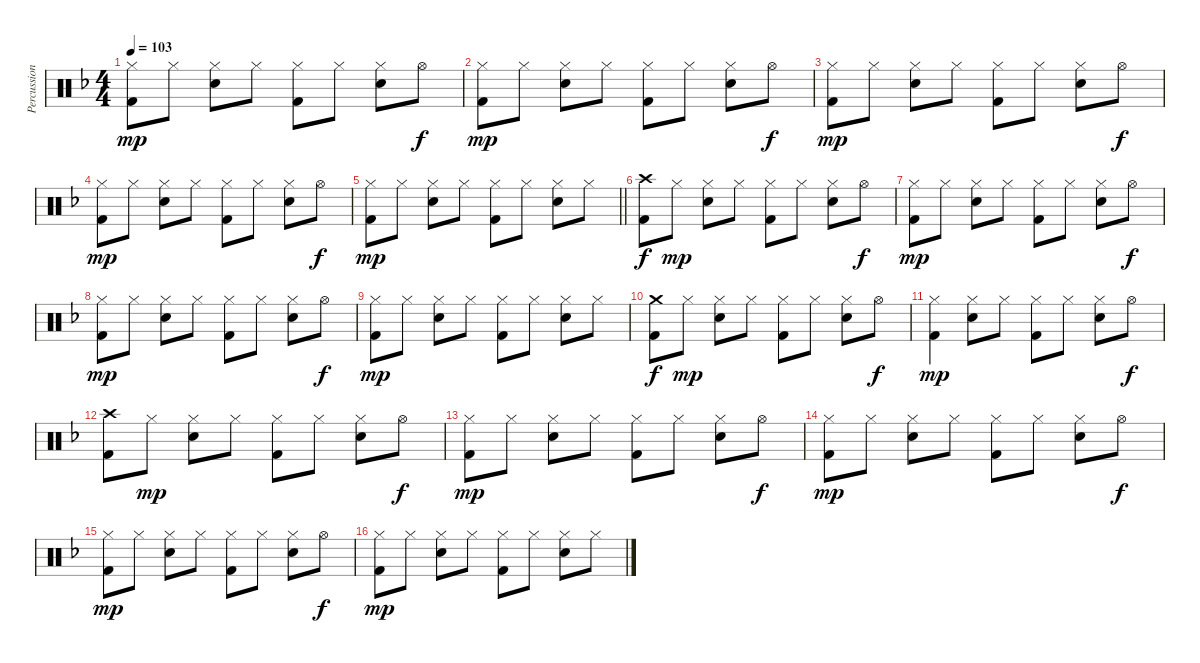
\track ("Percussions" "Percussion") {instrument percussion}
\staff {score}
\articulation defaults
\ts (4 4)
\tempo 103
\clef neutral
\ks dminor
("Hi-Hat (closed)" "Kick (hit) 2").8{dy mp} "Hi-Hat (closed)".8 ("Hi-Hat (closed)" "Snare (hit) 2").8 "Hi-Hat (closed)".8 ("Hi-Hat (closed)" "Kick (hit) 2").8 "Hi-Hat (closed)".8 ("Hi-Hat (closed)" "Snare (hit) 2").8 "Hi-Hat (open)".8{dy f} |
("Hi-Hat (closed)" "Kick (hit) 2").8{dy mp} "Hi-Hat (closed)".8 ("Hi-Hat (closed)" "Snare (hit) 2").8 "Hi-Hat (closed)".8 ("Hi-Hat (closed)" "Kick (hit) 2").8 "Hi-Hat (closed)".8 ("Hi-Hat (closed)" "Snare (hit) 2").8 "Hi-Hat (open)".8{dy f} |
("Hi-Hat (closed)" "Kick (hit) 2").8{dy mp} "Hi-Hat (closed)".8 ("Hi-Hat (closed)" "Snare (hit) 2").8 "Hi-Hat (closed)".8 ("Hi-Hat (closed)" "Kick (hit) 2").8 "Hi-Hat (closed)".8 ("Hi-Hat (closed)" "Snare (hit) 2").8 "Hi-Hat (open)".8{dy f} |
("Hi-Hat (closed)" "Kick (hit) 2").8{dy mp} "Hi-Hat (closed)".8 ("Hi-Hat (closed)" "Snare (hit) 2").8 "Hi-Hat (closed)".8 ("Hi-Hat (closed)" "Kick (hit) 2").8 "Hi-Hat (closed)".8 ("Hi-Hat (closed)" "Snare (hit) 2").8 "Hi-Hat (open)".8{dy f} |
\barLineRight lightlight
("Hi-Hat (closed)" "Kick (hit) 2").8{dy mp} "Hi-Hat (closed)".8 ("Hi-Hat (closed)" "Snare (hit) 2").8 "Hi-Hat (closed)".8 ("Hi-Hat (closed)" "Kick (hit) 2").8 "Hi-Hat (closed)".8 ("Hi-Hat (closed)" "Snare (hit) 2").8 "Hi-Hat (closed)".8 |
("Crash high (hit)" "Kick (hit) 2").8{dy f} "Hi-Hat (closed)".8{dy mp} ("Hi-Hat (closed)" "Snare (hit) 2").8 "Hi-Hat (closed)".8 ("Hi-Hat (closed)" "Kick (hit) 2").8 "Hi-Hat (closed)".8 ("Hi-Hat (closed)" "Snare (hit) 2").8 "Hi-Hat (open)".8{dy f} |
("Hi-Hat (closed)" "Kick (hit) 2").8{dy mp} "Hi-Hat (closed)".8 ("Hi-Hat (closed)" "Snare (hit) 2").8 "Hi-Hat (closed)".8 ("Hi-Hat (closed)" "Kick (hit) 2").8 "Hi-Hat (closed)".8 ("Hi-Hat (closed)" "Snare (hit) 2").8 "Hi-Hat (open)".8{dy f} |
("Hi-Hat (closed)" "Kick (hit) 2").8{dy mp} "Hi-Hat (closed)".8 ("Hi-Hat (closed)" "Snare (hit) 2").8 "Hi-Hat (closed)".8 ("Hi-Hat (closed)" "Kick (hit) 2").8 "Hi-Hat (closed)".8 ("Hi-Hat (closed)" "Snare (hit) 2").8 "Hi-Hat (open)".8{dy f} |
("Hi-Hat (closed)" "Kick (hit) 2").8{dy mp} "Hi-Hat (closed)".8 ("Hi-Hat (closed)" "Snare (hit) 2").8 "Hi-Hat (closed)".8 ("Hi-Hat (closed)" "Kick (hit) 2").8 "Hi-Hat (closed)".8 ("Hi-Hat (closed)" "Snare (hit) 2").8 "Hi-Hat (closed)".8 |
("Crash medium (hit)" "Kick (hit) 2").8{dy f} "Hi-Hat (closed)".8{dy mp} ("Hi-Hat (closed)" "Snare (hit) 2").8 "Hi-Hat (closed)".8 ("Hi-Hat (closed)" "Kick (hit) 2").8 "Hi-Hat (closed)".8 ("Hi-Hat (closed)" "Snare (hit) 2").8 "Hi-Hat (open)".8{dy f} |
("Hi-Hat (closed)" "Kick (hit) 2").4{dy mp} ("Hi-Hat (closed)" "Snare (hit) 2").8 "Hi-Hat (closed)".8 ("Hi-Hat (closed)" "Kick (hit) 2").8 "Hi-Hat (closed)".8 ("Hi-Hat (closed)" "Snare (hit) 2").8 "Hi-Hat (open)".8{dy f} |
("Crash high (hit)" "Kick (hit) 2").8 "Hi-Hat (closed)".8{dy mp} ("Hi-Hat (closed)" "Snare (hit) 2").8 "Hi-Hat (closed)".8 ("Hi-Hat (closed)" "Kick (hit) 2").8 "Hi-Hat (closed)".8 ("Hi-Hat (closed)" "Snare (hit) 2").8 "Hi-Hat (open)".8{dy f} |
("Hi-Hat (closed)" "Kick (hit) 2").8{dy mp} "Hi-Hat (closed)".8 ("Hi-Hat (closed)" "Snare (hit) 2").8 "Hi-Hat (closed)".8 ("Hi-Hat (closed)" "Kick (hit) 2").8 "Hi-Hat (closed)".8 ("Hi-Hat (closed)" "Snare (hit) 2").8 "Hi-Hat (open)".8{dy f} |
("Hi-Hat (closed)" "Kick (hit) 2").8{dy mp} "Hi-Hat (closed)".8 ("Hi-Hat (closed)" "Snare (hit) 2").8 "Hi-Hat (closed)".8 ("Hi-Hat (closed)" "Kick (hit) 2").8 "Hi-Hat (closed)".8 ("Hi-Hat (closed)" "Snare (hit) 2").8 "Hi-Hat (open)".8{dy f} |
("Hi-Hat (closed)" "Kick (hit) 2").8{dy mp} "Hi-Hat (closed)".8 ("Hi-Hat (closed)" "Snare (hit) 2").8 "Hi-Hat (closed)".8 ("Hi-Hat (closed)" "Kick (hit) 2").8 "Hi-Hat (closed)".8 ("Hi-Hat (closed)" "Snare (hit) 2").8 "Hi-Hat (open)".8{dy f} |
("Hi-Hat (closed)" "Kick (hit) 2").8{dy mp} "Hi-Hat (closed)".8 ("Hi-Hat (closed)" "Snare (hit) 2").8 "Hi-Hat (closed)".8 ("Hi-Hat (closed)" "Kick (hit) 2").8 "Hi-Hat (closed)".8 ("Hi-Hat (closed)" "Snare (hit) 2").8 "Hi-Hat (closed)".8
